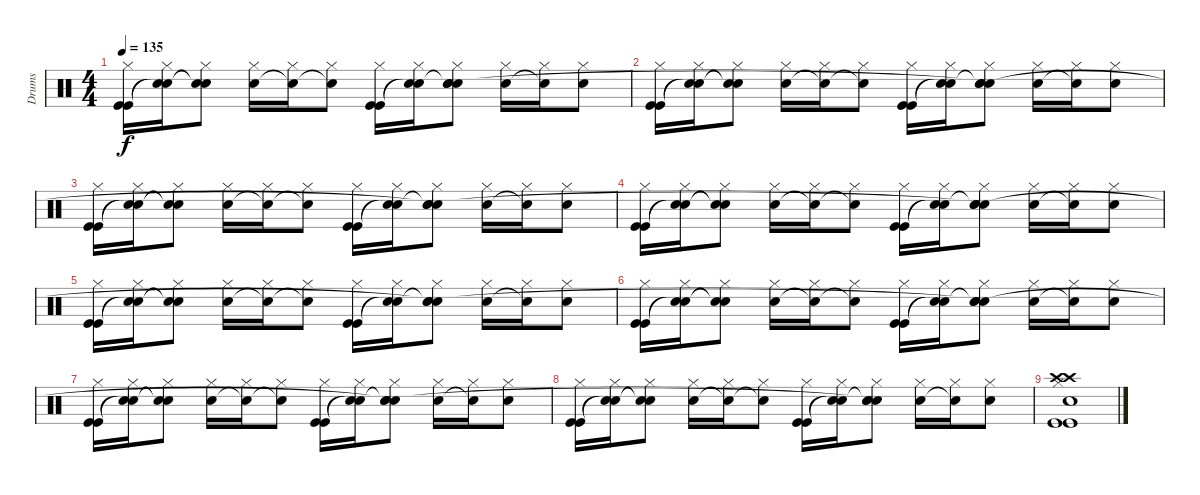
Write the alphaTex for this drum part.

\track ("Drums" "Drums") {instrument percussion}
\staff {score}
\articulation defaults
\ts (4 4)
\tempo 135
\clef neutral
\ks c
("Hi-Hat (closed)" "Kick (hit)" "Kick (hit)").16{dy f} ("Hi-Hat (closed)" "Snare (hit)"{t} "Snare (hit)"{t}).16 ("Hi-Hat (closed)" "Snare (hit)"{t} "Snare (hit)"{t}).8 ("Hi-Hat (closed)" "Snare (hit) 2").16 ("Hi-Hat (closed)" "Snare (hit)"{t}).16 ("Hi-Hat (closed)" "Snare (hit) 2"{t}).8 ("Hi-Hat (closed)" "Kick (hit)" "Kick (hit)").16 ("Hi-Hat (closed)" "Snare (hit)"{t} "Snare (hit)"{t}).16 ("Hi-Hat (closed)" "Snare (hit) 2" "Snare (hit)"{t} "Snare (hit)"{t}).8 ("Hi-Hat (closed)" "Snare (hit) 2").16 ("Hi-Hat (closed)" "Snare (hit) 2"{t}).16 ("Hi-Hat (closed)" "Snare (hit) 2").8 |
("Hi-Hat (closed)" "Kick (hit)" "Kick (hit)").16 ("Hi-Hat (closed)" "Snare (hit)"{t} "Snare (hit)"{t}).16 ("Hi-Hat (closed)" "Snare (hit)"{t} "Snare (hit)"{t}).8 ("Hi-Hat (closed)" "Snare (hit) 2").16 ("Hi-Hat (closed)" "Snare (hit)"{t}).16 ("Hi-Hat (closed)" "Snare (hit) 2"{t}).8 ("Hi-Hat (closed)" "Kick (hit)" "Kick (hit)").16 ("Hi-Hat (closed)" "Snare (hit)"{t} "Snare (hit)"{t}).16 ("Hi-Hat (closed)" "Snare (hit) 2" "Snare (hit)"{t} "Snare (hit)"{t}).8 ("Hi-Hat (closed)" "Snare (hit) 2").16 ("Hi-Hat (closed)" "Snare (hit) 2"{t}).16 ("Hi-Hat (closed)" "Snare (hit) 2").8 |
("Hi-Hat (closed)" "Kick (hit)" "Kick (hit)").16 ("Hi-Hat (closed)" "Snare (hit)"{t} "Snare (hit)"{t}).16 ("Hi-Hat (closed)" "Snare (hit)"{t} "Snare (hit)"{t}).8 ("Hi-Hat (closed)" "Snare (hit) 2").16 ("Hi-Hat (closed)" "Snare (hit)"{t}).16 ("Hi-Hat (closed)" "Snare (hit) 2"{t}).8 ("Hi-Hat (closed)" "Kick (hit)" "Kick (hit)").16 ("Hi-Hat (closed)" "Snare (hit)"{t} "Snare (hit)"{t}).16 ("Hi-Hat (closed)" "Snare (hit) 2" "Snare (hit)"{t} "Snare (hit)"{t}).8 ("Hi-Hat (closed)" "Snare (hit) 2").16 ("Hi-Hat (closed)" "Snare (hit) 2"{t}).16 ("Hi-Hat (closed)" "Snare (hit) 2").8 |
("Hi-Hat (closed)" "Kick (hit)" "Kick (hit)").16 ("Hi-Hat (closed)" "Snare (hit)"{t} "Snare (hit)"{t}).16 ("Hi-Hat (closed)" "Snare (hit)"{t} "Snare (hit)"{t}).8 ("Hi-Hat (closed)" "Snare (hit) 2").16 ("Hi-Hat (closed)" "Snare (hit)"{t}).16 ("Hi-Hat (closed)" "Snare (hit) 2"{t}).8 ("Hi-Hat (closed)" "Kick (hit)" "Kick (hit)").16 ("Hi-Hat (closed)" "Snare (hit)"{t} "Snare (hit)"{t}).16 ("Hi-Hat (closed)" "Snare (hit) 2" "Snare (hit)"{t} "Snare (hit)"{t}).8 ("Hi-Hat (closed)" "Snare (hit) 2").16 ("Hi-Hat (closed)" "Snare (hit) 2"{t}).16 ("Hi-Hat (closed)" "Snare (hit) 2").8 |
("Hi-Hat (closed)" "Kick (hit)" "Kick (hit)").16 ("Hi-Hat (closed)" "Snare (hit)"{t} "Snare (hit)"{t}).16 ("Hi-Hat (closed)" "Snare (hit)"{t} "Snare (hit)"{t}).8 ("Hi-Hat (closed)" "Snare (hit) 2").16 ("Hi-Hat (closed)" "Snare (hit)"{t}).16 ("Hi-Hat (closed)" "Snare (hit) 2"{t}).8 ("Hi-Hat (closed)" "Kick (hit)" "Kick (hit)").16 ("Hi-Hat (closed)" "Snare (hit)"{t} "Snare (hit)"{t}).16 ("Hi-Hat (closed)" "Snare (hit) 2" "Snare (hit)"{t} "Snare (hit)"{t}).8 ("Hi-Hat (closed)" "Snare (hit) 2").16 ("Hi-Hat (closed)" "Snare (hit) 2"{t}).16 ("Hi-Hat (closed)" "Snare (hit) 2").8 |
("Hi-Hat (closed)" "Kick (hit)" "Kick (hit)").16 ("Hi-Hat (closed)" "Snare (hit)"{t} "Snare (hit)"{t}).16 ("Hi-Hat (closed)" "Snare (hit)"{t} "Snare (hit)"{t}).8 ("Hi-Hat (closed)" "Snare (hit) 2").16 ("Hi-Hat (closed)" "Snare (hit)"{t}).16 ("Hi-Hat (closed)" "Snare (hit) 2"{t}).8 ("Hi-Hat (closed)" "Kick (hit)" "Kick (hit)").16 ("Hi-Hat (closed)" "Snare (hit)"{t} "Snare (hit)"{t}).16 ("Hi-Hat (closed)" "Snare (hit) 2" "Snare (hit)"{t} "Snare (hit)"{t}).8 ("Hi-Hat (closed)" "Snare (hit) 2").16 ("Hi-Hat (closed)" "Snare (hit) 2"{t}).16 ("Hi-Hat (closed)" "Snare (hit) 2").8 |
("Hi-Hat (closed)" "Kick (hit)" "Kick (hit)").16 ("Hi-Hat (closed)" "Snare (hit)"{t} "Snare (hit)"{t}).16 ("Hi-Hat (closed)" "Snare (hit)"{t} "Snare (hit)"{t}).8 ("Hi-Hat (closed)" "Snare (hit) 2").16 ("Hi-Hat (closed)" "Snare (hit)"{t}).16 ("Hi-Hat (closed)" "Snare (hit) 2"{t}).8 ("Hi-Hat (closed)" "Kick (hit)" "Kick (hit)").16 ("Hi-Hat (closed)" "Snare (hit)"{t} "Snare (hit)"{t}).16 ("Hi-Hat (closed)" "Snare (hit) 2" "Snare (hit)"{t} "Snare (hit)"{t}).8 ("Hi-Hat (closed)" "Snare (hit) 2").16 ("Hi-Hat (closed)" "Snare (hit) 2"{t}).16 ("Hi-Hat (closed)" "Snare (hit) 2").8 |
("Hi-Hat (closed)" "Kick (hit)" "Kick (hit)").16 ("Hi-Hat (closed)" "Snare (hit)"{t} "Snare (hit)"{t}).16 ("Hi-Hat (closed)" "Snare (hit)"{t} "Snare (hit)"{t}).8 ("Hi-Hat (closed)" "Snare (hit) 2").16 ("Hi-Hat (closed)" "Snare (hit)"{t}).16 ("Hi-Hat (closed)" "Snare (hit) 2"{t}).8 ("Hi-Hat (closed)" "Kick (hit)" "Kick (hit)").16 ("Hi-Hat (closed)" "Snare (hit)"{t} "Snare (hit)"{t}).16 ("Hi-Hat (closed)" "Snare (hit) 2" "Snare (hit)"{t} "Snare (hit)"{t}).8 ("Hi-Hat (closed)" "Snare (hit) 2").16 ("Hi-Hat (closed)" "Snare (hit) 2"{t}).16 ("Hi-Hat (closed)" "Snare (hit) 2").8 |
("Hi-Hat (closed)" "Crash high (hit)" "Electric Snare (hit)" "Crash high (hit)" "Kick (hit)" "Kick (hit)").1
